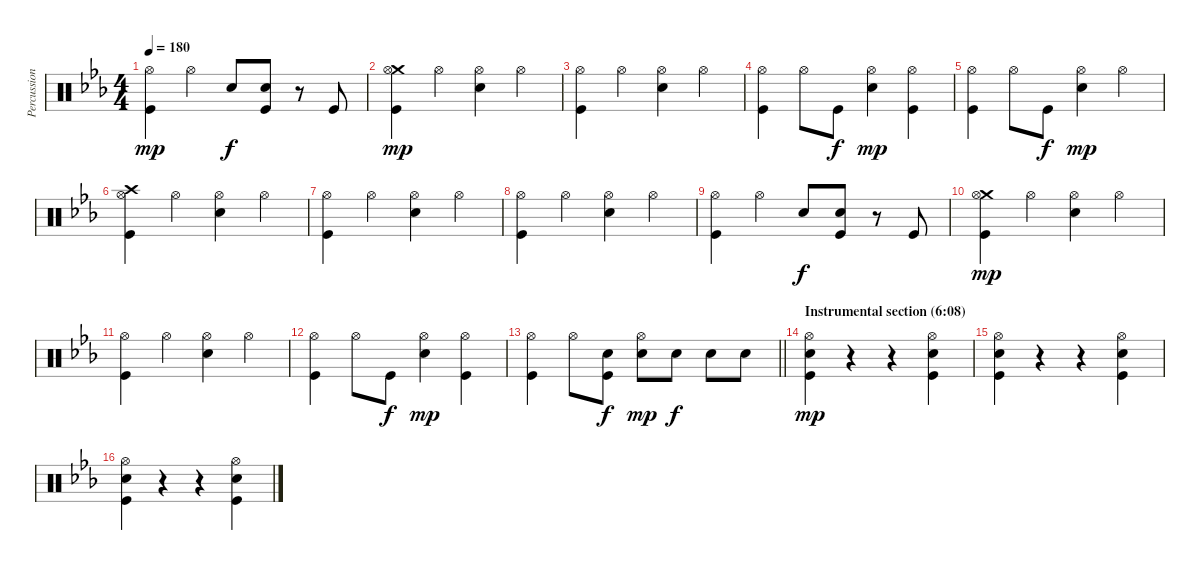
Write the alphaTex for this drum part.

\track ("Percussion" "Percussion") {instrument percussion}
\staff {score}
\articulation defaults
\ts (4 4)
\tempo 180
\clef neutral
\ks cminor
("Hi-Hat (open)" "Kick (hit)").4{dy mp} "Hi-Hat (open)".4 "Snare (hit) 2".8{dy f} ("Snare (hit) 2" "Kick (hit)").8 r.8 "Kick (hit)".8 |
("Crash medium (hit)" "Hi-Hat (open)" "Kick (hit)").4{dy mp} "Hi-Hat (open)".4 ("Hi-Hat (open)" "Snare (hit) 2").4 "Hi-Hat (open)".4 |
("Hi-Hat (open)" "Kick (hit)").4 "Hi-Hat (open)".4 ("Hi-Hat (open)" "Snare (hit) 2").4 "Hi-Hat (open)".4 |
("Hi-Hat (open)" "Kick (hit)").4 "Hi-Hat (open)".8 "Kick (hit)".8{dy f} ("Hi-Hat (open)" "Snare (hit) 2").4{dy mp} ("Hi-Hat (open)" "Kick (hit)").4 |
("Hi-Hat (open)" "Kick (hit)").4 "Hi-Hat (open)".8 "Kick (hit)".8{dy f} ("Hi-Hat (open)" "Snare (hit) 2").4{dy mp} "Hi-Hat (open)".4 |
("Crash high (hit)" "Hi-Hat (open)" "Kick (hit)").4 "Hi-Hat (open)".4 ("Hi-Hat (open)" "Snare (hit) 2").4 "Hi-Hat (open)".4 |
("Hi-Hat (open)" "Kick (hit)").4 "Hi-Hat (open)".4 ("Hi-Hat (open)" "Snare (hit) 2").4 "Hi-Hat (open)".4 |
("Hi-Hat (open)" "Kick (hit)").4 "Hi-Hat (open)".4 ("Hi-Hat (open)" "Snare (hit) 2").4 "Hi-Hat (open)".4 |
("Hi-Hat (open)" "Kick (hit)").4 "Hi-Hat (open)".4 "Snare (hit) 2".8{dy f} ("Snare (hit) 2" "Kick (hit)").8 r.8 "Kick (hit)".8 |
("Crash medium (hit)" "Hi-Hat (open)" "Kick (hit)").4{dy mp} "Hi-Hat (open)".4 ("Hi-Hat (open)" "Snare (hit) 2").4 "Hi-Hat (open)".4 |
("Hi-Hat (open)" "Kick (hit)").4 "Hi-Hat (open)".4 ("Hi-Hat (open)" "Snare (hit) 2").4 "Hi-Hat (open)".4 |
("Hi-Hat (open)" "Kick (hit)").4 "Hi-Hat (open)".8 "Kick (hit)".8{dy f} ("Hi-Hat (open)" "Snare (hit) 2").4{dy mp} ("Hi-Hat (open)" "Kick (hit)").4 |
\barLineRight lightlight
("Hi-Hat (open)" "Kick (hit)").4 "Hi-Hat (open)".8 ("Snare (hit) 2" "Kick (hit)").8{dy f} ("Hi-Hat (open)" "Snare (hit) 2").8{dy mp} "Snare (hit) 2".8{dy f} "Snare (hit) 2".8 "Snare (hit) 2".8 |
\section ("" "Instrumental section (6:08)")
("Hi-Hat (open)" "Snare (hit) 2" "Kick (hit)").4{dy mp} r.4 r.4 ("Hi-Hat (open)" "Snare (hit) 2" "Kick (hit)").4 |
("Hi-Hat (open)" "Snare (hit) 2" "Kick (hit)").4 r.4 r.4 ("Hi-Hat (open)" "Snare (hit) 2" "Kick (hit)").4 |
("Hi-Hat (open)" "Snare (hit) 2" "Kick (hit)").4 r.4 r.4 ("Hi-Hat (open)" "Snare (hit) 2" "Kick (hit)").4
